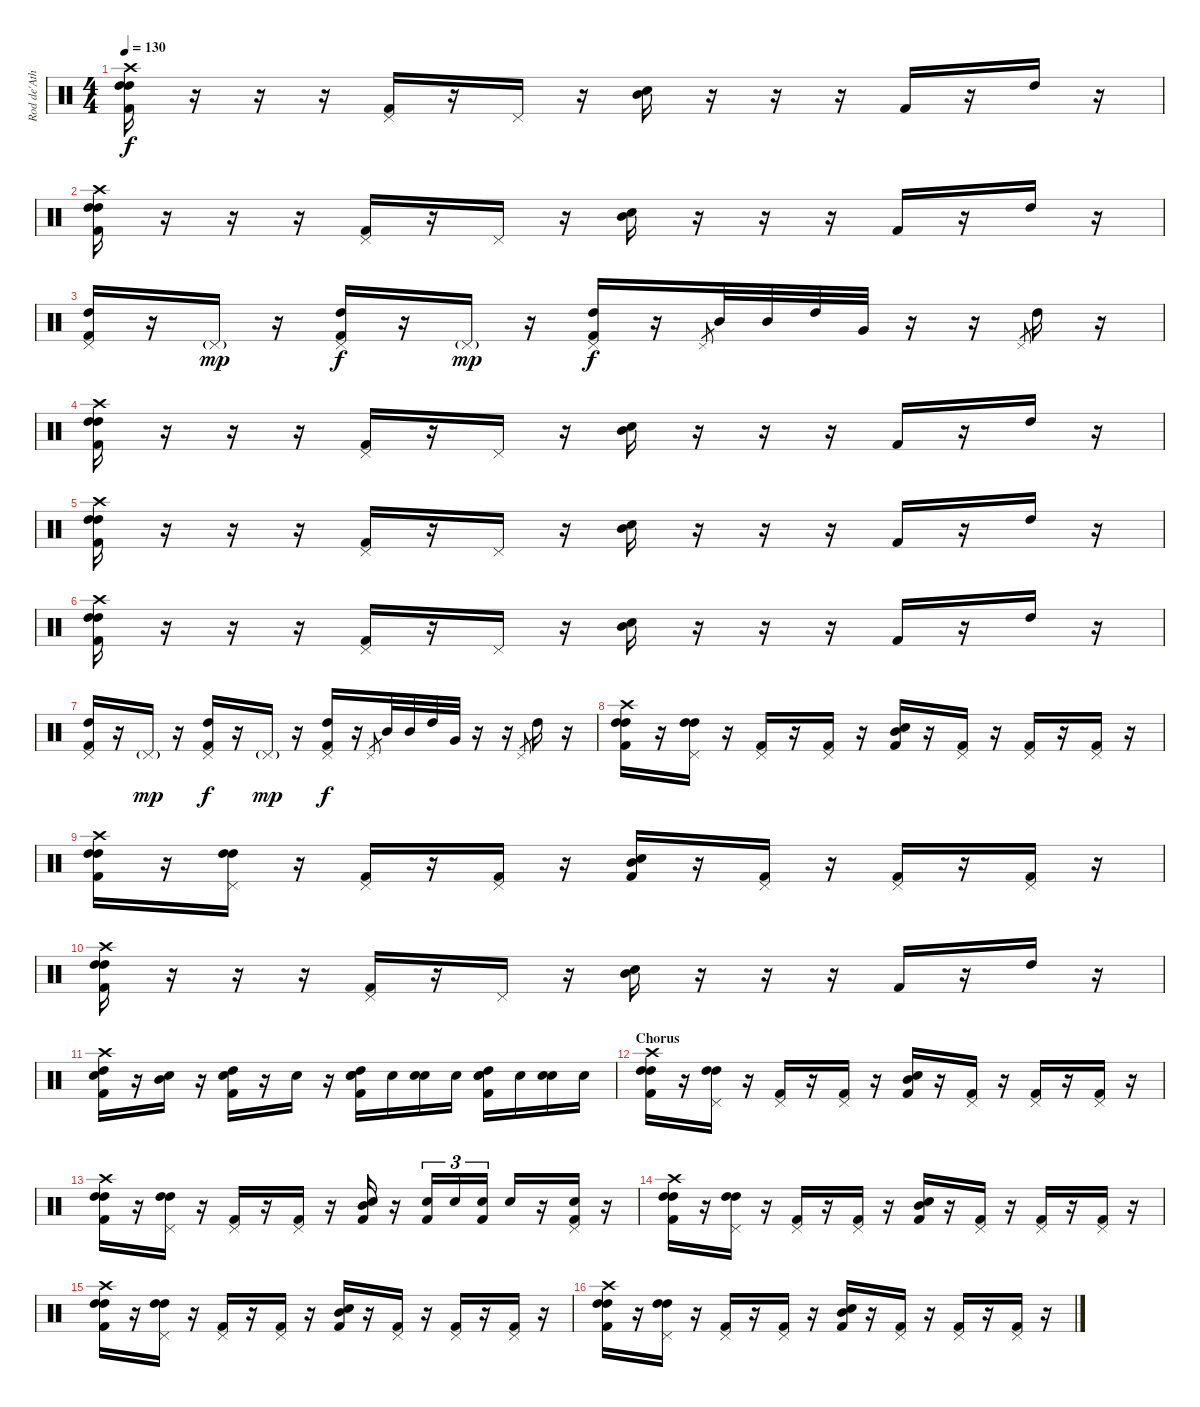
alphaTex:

\track ("Rod de'Ath" "Rod de'Ath") {instrument percussion}
\staff {score}
\articulation defaults
\ts (4 4)
\tempo 130
\clef neutral
\ks c
("Crash high (hit)" "High Tom (hit)" "High Tom (hit)" "Kick (hit) 2").16{dy f} r.16 r.16 r.16 ("Pedal Hi-Hat (hit)" "Kick (hit) 2").16 r.16 "Pedal Hi-Hat (hit)".16 r.16 ("Electric Snare (hit)" "Mid Tom (hit)").16 r.16 r.16 r.16 "Kick (hit) 2".16 r.16 "High Tom (hit)".16 r.16 |
("Crash high (hit)" "High Tom (hit)" "High Tom (hit)" "Kick (hit) 2").16 r.16 r.16 r.16 ("Pedal Hi-Hat (hit)" "Kick (hit) 2").16 r.16 "Pedal Hi-Hat (hit)".16 r.16 ("Electric Snare (hit)" "Mid Tom (hit)").16 r.16 r.16 r.16 "Kick (hit) 2".16 r.16 "High Tom (hit)".16 r.16 |
("Pedal Hi-Hat (hit)" "High Tom (hit)" "Kick (hit) 2").16 r.16 "Pedal Hi-Hat (hit)"{g}.16{dy mp} r.16 ("Pedal Hi-Hat (hit)" "High Tom (hit)" "Kick (hit) 2").16{dy f} r.16 "Pedal Hi-Hat (hit)"{g}.16{dy mp} r.16 ("Pedal Hi-Hat (hit)" "High Tom (hit)" "Kick (hit) 2").16{dy f} r.16 "Pedal Hi-Hat (hit)".8{gr} "Mid Tom (hit)".32 "Mid Tom (hit)".32 "High Tom (hit)".32 "Very Low Tom (hit)".32 r.16 r.16 "Pedal Hi-Hat (hit)".8{gr} "High Tom (hit)".16 r.16 |
("Crash high (hit)" "High Tom (hit)" "High Tom (hit)" "Kick (hit) 2").16 r.16 r.16 r.16 ("Pedal Hi-Hat (hit)" "Kick (hit) 2").16 r.16 "Pedal Hi-Hat (hit)".16 r.16 ("Electric Snare (hit)" "Mid Tom (hit)").16 r.16 r.16 r.16 "Kick (hit) 2".16 r.16 "High Tom (hit)".16 r.16 |
("Crash high (hit)" "High Tom (hit)" "High Tom (hit)" "Kick (hit) 2").16 r.16 r.16 r.16 ("Pedal Hi-Hat (hit)" "Kick (hit) 2").16 r.16 "Pedal Hi-Hat (hit)".16 r.16 ("Electric Snare (hit)" "Mid Tom (hit)").16 r.16 r.16 r.16 "Kick (hit) 2".16 r.16 "High Tom (hit)".16 r.16 |
("Crash high (hit)" "High Tom (hit)" "High Tom (hit)" "Kick (hit) 2").16 r.16 r.16 r.16 ("Pedal Hi-Hat (hit)" "Kick (hit) 2").16 r.16 "Pedal Hi-Hat (hit)".16 r.16 ("Electric Snare (hit)" "Mid Tom (hit)").16 r.16 r.16 r.16 "Kick (hit) 2".16 r.16 "High Tom (hit)".16 r.16 |
("Pedal Hi-Hat (hit)" "High Tom (hit)" "Kick (hit) 2").16 r.16 "Pedal Hi-Hat (hit)"{g}.16{dy mp} r.16 ("Pedal Hi-Hat (hit)" "High Tom (hit)" "Kick (hit) 2").16{dy f} r.16 "Pedal Hi-Hat (hit)"{g}.16{dy mp} r.16 ("Pedal Hi-Hat (hit)" "High Tom (hit)" "Kick (hit) 2").16{dy f} r.16 "Pedal Hi-Hat (hit)".8{gr} "Mid Tom (hit)".32 "Mid Tom (hit)".32 "High Tom (hit)".32 "Very Low Tom (hit)".32 r.16 r.16 "Pedal Hi-Hat (hit)".8{gr} "High Tom (hit)".16 r.16 |
("Crash high (hit)" "High Tom (hit)" "High Tom (hit)" "Kick (hit) 2").16 r.16 ("Pedal Hi-Hat (hit)" "High Tom (hit)" "High Tom (hit)").16 r.16 ("Pedal Hi-Hat (hit)" "Kick (hit) 2").16 r.16 ("Pedal Hi-Hat (hit)" "Kick (hit) 2").16 r.16 ("Snare (hit) 2" "Mid Tom (hit)" "Kick (hit) 2").16 r.16 ("Pedal Hi-Hat (hit)" "Kick (hit) 2").16 r.16 ("Pedal Hi-Hat (hit)" "Kick (hit) 2").16 r.16 ("Pedal Hi-Hat (hit)" "Kick (hit) 2").16 r.16 |
("Crash high (hit)" "High Tom (hit)" "High Tom (hit)" "Kick (hit) 2").16 r.16 ("Pedal Hi-Hat (hit)" "High Tom (hit)" "High Tom (hit)").16 r.16 ("Pedal Hi-Hat (hit)" "Kick (hit) 2").16 r.16 ("Pedal Hi-Hat (hit)" "Kick (hit) 2").16 r.16 ("Snare (hit) 2" "Mid Tom (hit)" "Kick (hit) 2").16 r.16 ("Pedal Hi-Hat (hit)" "Kick (hit) 2").16 r.16 ("Pedal Hi-Hat (hit)" "Kick (hit) 2").16 r.16 ("Pedal Hi-Hat (hit)" "Kick (hit) 2").16 r.16 |
("Crash high (hit)" "High Tom (hit)" "High Tom (hit)" "Kick (hit) 2").16 r.16 r.16 r.16 ("Pedal Hi-Hat (hit)" "Kick (hit) 2").16 r.16 "Pedal Hi-Hat (hit)".16 r.16 ("Electric Snare (hit)" "Mid Tom (hit)").16 r.16 r.16 r.16 "Kick (hit) 2".16 r.16 "High Tom (hit)".16 r.16 |
("Crash high (hit)" "Snare (hit) 2" "High Tom (hit)" "Kick (hit) 2").16 r.16 ("Snare (hit) 2" "Mid Tom (hit)").16 r.16 ("Snare (hit) 2" "High Tom (hit)" "Kick (hit) 2").16 r.16 "Snare (hit) 2".16 r.16 ("Snare (hit) 2" "High Tom (hit)" "Electric Snare (hit)" "Kick (hit) 2").16 "Electric Snare (hit)".16 ("Snare (hit) 2" "Electric Snare (hit)").16 "Electric Snare (hit)".16 ("Snare (hit) 2" "High Tom (hit)" "Electric Snare (hit)" "Kick (hit) 2").16 "Electric Snare (hit)".16 ("Snare (hit) 2" "Electric Snare (hit)").16 "Electric Snare (hit)".16 |
\section ("" "Chorus")
("Crash high (hit)" "High Tom (hit)" "High Tom (hit)" "Kick (hit) 2").16 r.16 ("Pedal Hi-Hat (hit)" "High Tom (hit)" "High Tom (hit)").16 r.16 ("Pedal Hi-Hat (hit)" "Kick (hit) 2").16 r.16 ("Pedal Hi-Hat (hit)" "Kick (hit) 2").16 r.16 ("Snare (hit) 2" "Mid Tom (hit)" "Kick (hit) 2").16 r.16 ("Pedal Hi-Hat (hit)" "Kick (hit) 2").16 r.16 ("Pedal Hi-Hat (hit)" "Kick (hit) 2").16 r.16 ("Pedal Hi-Hat (hit)" "Kick (hit) 2").16 r.16 |
("Crash high (hit)" "High Tom (hit)" "High Tom (hit)" "Kick (hit) 2").16 r.16 ("Pedal Hi-Hat (hit)" "High Tom (hit)" "High Tom (hit)").16 r.16 ("Pedal Hi-Hat (hit)" "Kick (hit) 2").16 r.16 ("Pedal Hi-Hat (hit)" "Kick (hit) 2").16 r.16 ("Snare (hit) 2" "Mid Tom (hit)" "Kick (hit) 2").16 r.16 ("Electric Snare (hit)" "Kick (hit) 2").16{tu (3 2)} "Electric Snare (hit)".16{tu (3 2)} ("Electric Snare (hit)" "Kick (hit) 2").16{tu (3 2)} "Electric Snare (hit)".16 r.16 ("Electric Snare (hit)" "Pedal Hi-Hat (hit)" "Kick (hit) 2").16 r.16 |
("Crash high (hit)" "High Tom (hit)" "High Tom (hit)" "Kick (hit) 2").16 r.16 ("Pedal Hi-Hat (hit)" "High Tom (hit)" "High Tom (hit)").16 r.16 ("Pedal Hi-Hat (hit)" "Kick (hit) 2").16 r.16 ("Pedal Hi-Hat (hit)" "Kick (hit) 2").16 r.16 ("Snare (hit) 2" "Mid Tom (hit)" "Kick (hit) 2").16 r.16 ("Pedal Hi-Hat (hit)" "Kick (hit) 2").16 r.16 ("Pedal Hi-Hat (hit)" "Kick (hit) 2").16 r.16 ("Pedal Hi-Hat (hit)" "Kick (hit) 2").16 r.16 |
("Crash high (hit)" "High Tom (hit)" "High Tom (hit)" "Kick (hit) 2").16 r.16 ("Pedal Hi-Hat (hit)" "High Tom (hit)" "High Tom (hit)").16 r.16 ("Pedal Hi-Hat (hit)" "Kick (hit) 2").16 r.16 ("Pedal Hi-Hat (hit)" "Kick (hit) 2").16 r.16 ("Snare (hit) 2" "Mid Tom (hit)" "Kick (hit) 2").16 r.16 ("Pedal Hi-Hat (hit)" "Kick (hit) 2").16 r.16 ("Pedal Hi-Hat (hit)" "Kick (hit) 2").16 r.16 ("Pedal Hi-Hat (hit)" "Kick (hit) 2").16 r.16 |
("Crash high (hit)" "High Tom (hit)" "High Tom (hit)" "Kick (hit) 2").16 r.16 ("Pedal Hi-Hat (hit)" "High Tom (hit)" "High Tom (hit)").16 r.16 ("Pedal Hi-Hat (hit)" "Kick (hit) 2").16 r.16 ("Pedal Hi-Hat (hit)" "Kick (hit) 2").16 r.16 ("Snare (hit) 2" "Mid Tom (hit)" "Kick (hit) 2").16 r.16 ("Pedal Hi-Hat (hit)" "Kick (hit) 2").16 r.16 ("Pedal Hi-Hat (hit)" "Kick (hit) 2").16 r.16 ("Pedal Hi-Hat (hit)" "Kick (hit) 2").16 r.16
